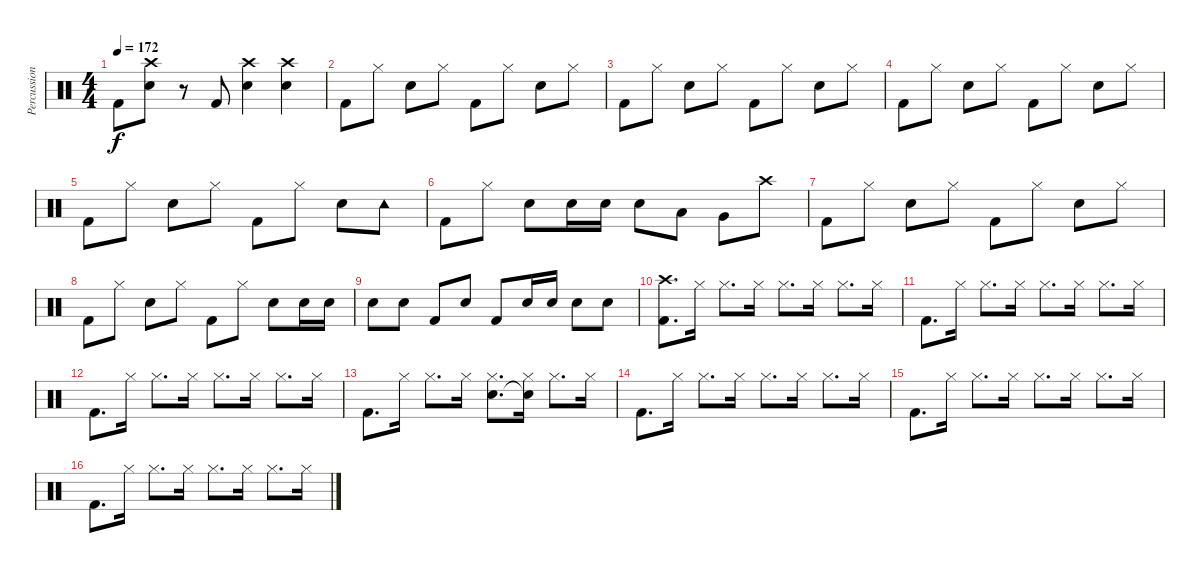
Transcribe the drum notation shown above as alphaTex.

\track ("Percussion" "Percussion") {instrument percussion}
\staff {score}
\articulation defaults
\ts (4 4)
\tempo 172
\clef neutral
\ks c "Kick (hit) 2".8{dy f}
("Crash high (hit)" "Snare (hit) 2").8 r.8 "Kick (hit) 2".8 ("Crash high (hit)" "Snare (hit) 2").4 ("Crash high (hit)" "Snare (hit) 2").4 |
"Kick (hit) 2".8 "Hi-Hat (closed)".8 "Snare (hit) 2".8 "Hi-Hat (closed)".8 "Kick (hit) 2".8 "Hi-Hat (closed)".8 "Snare (hit) 2".8 "Hi-Hat (closed)".8 |
"Kick (hit) 2".8 "Hi-Hat (closed)".8 "Snare (hit) 2".8 "Hi-Hat (closed)".8 "Kick (hit) 2".8 "Hi-Hat (closed)".8 "Snare (hit) 2".8 "Hi-Hat (closed)".8 |
"Kick (hit) 2".8 "Hi-Hat (closed)".8 "Snare (hit) 2".8 "Hi-Hat (closed)".8 "Kick (hit) 2".8 "Hi-Hat (closed)".8 "Snare (hit) 2".8 "Hi-Hat (closed)".8 |
"Kick (hit) 2".8 "Hi-Hat (closed)".8 "Snare (hit) 2".8 "Hi-Hat (closed)".8 "Kick (hit) 2".8 "Hi-Hat (closed)".8 "Snare (hit) 2".8 "Tambourine (hit)".8 |
"Kick (hit) 2".8 "Hi-Hat (closed)".8 "Snare (hit) 2".8 "Snare (hit) 2".16 "Snare (hit) 2".16 "Snare (hit) 2".8 "Low Tom (hit)".8 "Very Low Tom (hit)".8 "Crash high (hit)".8 |
"Kick (hit) 2".8 "Hi-Hat (closed)".8 "Snare (hit) 2".8 "Hi-Hat (closed)".8 "Kick (hit) 2".8 "Hi-Hat (closed)".8 "Snare (hit) 2".8 "Hi-Hat (closed)".8 |
"Kick (hit) 2".8 "Hi-Hat (closed)".8 "Snare (hit) 2".8 "Hi-Hat (closed)".8 "Kick (hit) 2".8 "Hi-Hat (closed)".8 "Snare (hit) 2".8 "Snare (hit) 2".16 "Snare (hit) 2".16 |
"Snare (hit) 2".8 "Snare (hit) 2".8 "Kick (hit) 2".8 "Snare (hit) 2".8 "Kick (hit) 2".8 "Snare (hit) 2".16 "Snare (hit) 2".16 "Snare (hit) 2".8 "Snare (hit) 2".8 |
("Crash high (hit)" "Kick (hit) 2").8{d} "Hi-Hat (closed)".16 "Hi-Hat (closed)".8{d} "Hi-Hat (closed)".16 "Hi-Hat (closed)".8{d} "Hi-Hat (closed)".16 "Hi-Hat (closed)".8{d} "Hi-Hat (closed)".16 |
"Kick (hit) 2".8{d} "Hi-Hat (closed)".16 "Hi-Hat (closed)".8{d} "Hi-Hat (closed)".16 "Hi-Hat (closed)".8{d} "Hi-Hat (closed)".16 "Hi-Hat (closed)".8{d} "Hi-Hat (closed)".16 |
"Kick (hit) 2".8{d} "Hi-Hat (closed)".16 "Hi-Hat (closed)".8{d} "Hi-Hat (closed)".16 "Hi-Hat (closed)".8{d} "Hi-Hat (closed)".16 "Hi-Hat (closed)".8{d} "Hi-Hat (closed)".16 |
"Kick (hit) 2".8{d} "Hi-Hat (closed)".16 "Hi-Hat (closed)".8{d} "Hi-Hat (closed)".16 ("Hi-Hat (closed)" "Snare (hit) 2").8{d} ("Hi-Hat (closed)" "Snare (hit) 2"{t}).16 "Hi-Hat (closed)".8{d} "Hi-Hat (closed)".16 |
"Kick (hit) 2".8{d} "Hi-Hat (closed)".16 "Hi-Hat (closed)".8{d} "Hi-Hat (closed)".16 "Hi-Hat (closed)".8{d} "Hi-Hat (closed)".16 "Hi-Hat (closed)".8{d} "Hi-Hat (closed)".16 |
"Kick (hit) 2".8{d} "Hi-Hat (closed)".16 "Hi-Hat (closed)".8{d} "Hi-Hat (closed)".16 "Hi-Hat (closed)".8{d} "Hi-Hat (closed)".16 "Hi-Hat (closed)".8{d} "Hi-Hat (closed)".16 |
"Kick (hit) 2".8{d} "Hi-Hat (closed)".16 "Hi-Hat (closed)".8{d} "Hi-Hat (closed)".16 "Hi-Hat (closed)".8{d} "Hi-Hat (closed)".16 "Hi-Hat (closed)".8{d} "Hi-Hat (closed)".16
